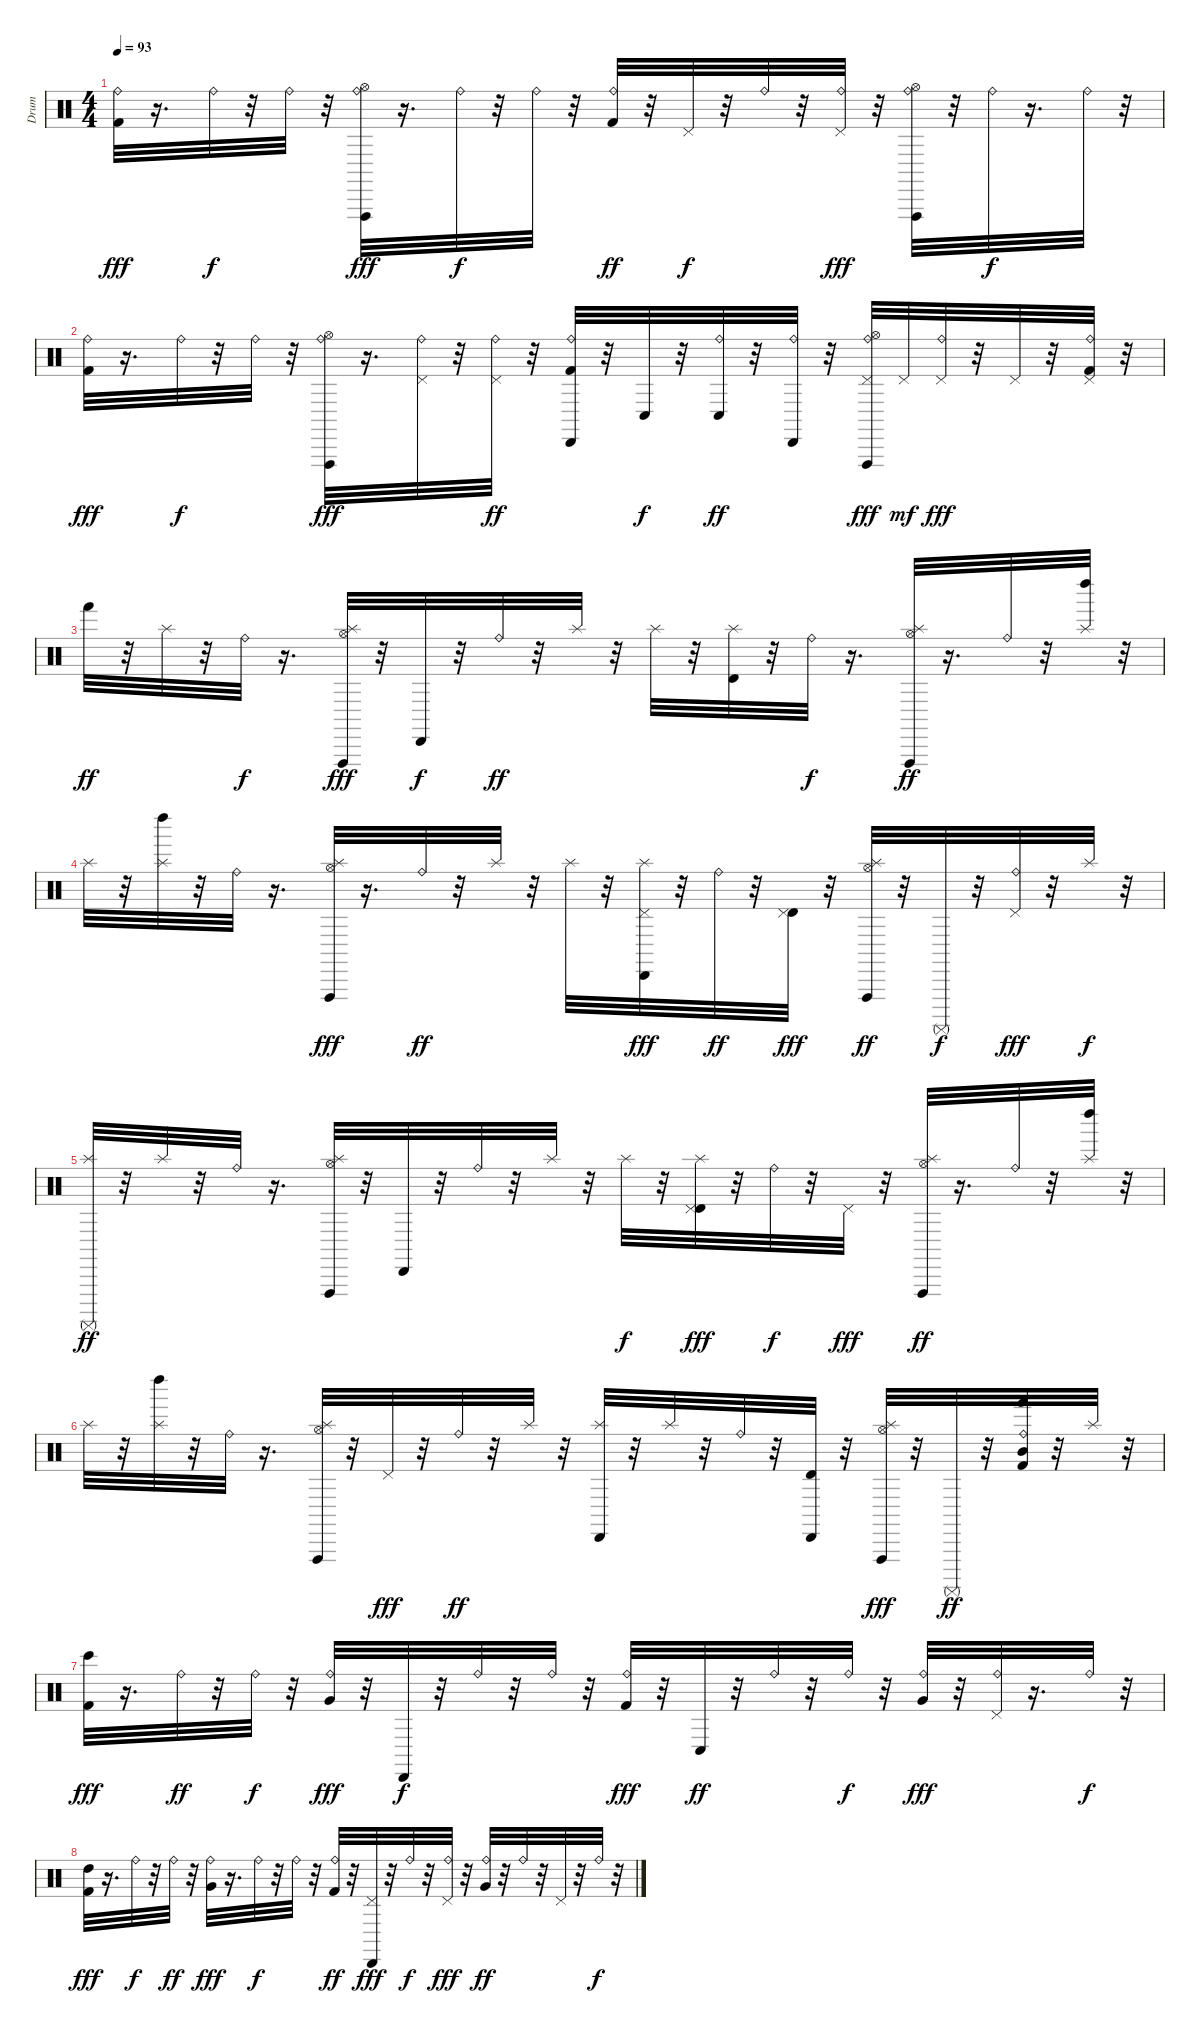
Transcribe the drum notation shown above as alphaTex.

\track ("Drum" "Drum") {instrument percussion}
\staff {score}
\articulation defaults
\ts (4 4)
\tempo 93
\clef neutral
\ks c
("Kick (hit) 2" "Ride (bell)").32{dy fff} r.16{d} "Ride (bell)".32{dy f} r.32 "Ride (bell)".32 r.32 ("Ride (bell)" "Vibraslap (hit)" "Hi-Hat (open)").32{dy fff} r.16{d} "Ride (bell)".32{dy f} r.32 "Ride (bell)".32 r.32 ("Kick (hit) 2" "Ride (bell)").32{dy ff} r.32 "Pedal Hi-Hat (hit)".32{dy f} r.32 "Ride (bell)".32 r.32 ("Ride (bell)" "Pedal Hi-Hat (hit)").32{dy fff} r.32 ("Ride (bell)" "Vibraslap (hit)" "Hi-Hat (open)").32 r.32 "Ride (bell)".32{dy f} r.16{d} "Ride (bell)".32 r.32 |
("Kick (hit) 2" "Ride (bell)").32{dy fff} r.16{d} "Ride (bell)".32{dy f} r.32 "Ride (bell)".32 r.32 ("Ride (bell)" "Vibraslap (hit)" "Hi-Hat (open)").32{dy fff} r.16{d} ("Ride (bell)" "Pedal Hi-Hat (hit)").32 r.32 ("Ride (bell)" "Pedal Hi-Hat (hit)").32{dy ff} r.32 ("Cabasa (hit)" "Kick (hit) 2" "Ride (bell)").32 r.32 "Conga low (hit)".32{dy f} r.32 ("Conga low (hit)" "Ride (bell)").32{dy ff} r.32 ("Cabasa (hit)" "Ride (bell)").32 r.32 ("Ride (bell)" "Pedal Hi-Hat (hit)" "Vibraslap (hit)" "Hi-Hat (open)").32{dy fff} "Pedal Hi-Hat (hit)".32{dy mf} ("Ride (bell)" "Pedal Hi-Hat (hit)").32{dy fff} r.32 "Pedal Hi-Hat (hit)".32 r.32 ("Kick (hit) 2" "Ride (bell)" "Pedal Hi-Hat (hit)").32 r.32 |
"Hand (hit)".32{dy ff} r.32 "Splash (hit)".32 r.32 "Ride (bell)".32{dy f} r.16{d} ("Splash (hit)" "Vibraslap (hit)" "Hi-Hat (open)").32{dy fff} r.32 "Cabasa (hit)".32{dy f} r.32 "Ride (bell)".32{dy ff} r.32 "Splash (hit)".32 r.32 "Splash (hit)".32 r.32 ("Timbale high (hit)" "Splash (hit)").32 r.32 "Ride (bell)".32{dy f} r.16{d} ("Splash (hit)" "Vibraslap (hit)" "Hi-Hat (open)").32{dy ff} r.16{d} "Ride (bell)".32 r.32 ("Left Maraca (hit)" "Splash (hit)").32 r.32 |
"Splash (hit)".32 r.32 ("Left Maraca (hit)" "Splash (hit)").32 r.32 "Ride (bell)".32 r.16{d} ("Splash (hit)" "Vibraslap (hit)" "Hi-Hat (open)").32{dy fff} r.16{d} "Ride (bell)".32{dy ff} r.32 "Splash (hit)".32 r.32 "Splash (hit)".32 r.32 ("Cabasa (hit)" "Splash (hit)" "Pedal Hi-Hat (hit)").32{dy fff} r.32 "Ride (bell)".32{dy ff} r.32 ("Timbale high (hit)" "Pedal Hi-Hat (hit)").32{dy fff} r.32 ("Splash (hit)" "Vibraslap (hit)" "Hi-Hat (open)").32{dy ff} r.32 "Surdo (mute)".32{dy f} r.32 ("Ride (bell)" "Pedal Hi-Hat (hit)").32{dy fff} r.32 "Splash (hit)".32{dy f} r.32 |
("Surdo (mute)" "Splash (hit)").32{dy ff} r.32 "Splash (hit)".32 r.32 "Ride (bell)".32 r.16{d} ("Splash (hit)" "Vibraslap (hit)" "Hi-Hat (open)").32 r.32 "Cabasa (hit)".32 r.32 "Ride (bell)".32 r.32 "Splash (hit)".32 r.32 "Splash (hit)".32{dy f} r.32 ("Timbale high (hit)" "Splash (hit)" "Pedal Hi-Hat (hit)").32{dy fff} r.32 "Ride (bell)".32{dy f} r.32 "Pedal Hi-Hat (hit)".32{dy fff} r.32 ("Splash (hit)" "Vibraslap (hit)" "Hi-Hat (open)").32{dy ff} r.16{d} "Ride (bell)".32 r.32 ("Left Maraca (hit)" "Splash (hit)").32 r.32 |
"Splash (hit)".32 r.32 ("Left Maraca (hit)" "Splash (hit)").32 r.32 "Ride (bell)".32 r.16{d} ("Splash (hit)" "Vibraslap (hit)" "Hi-Hat (open)").32 r.32 "Pedal Hi-Hat (hit)".32{dy fff} r.32 "Ride (bell)".32{dy ff} r.32 "Splash (hit)".32 r.32 ("Cabasa (hit)" "Splash (hit)").32 r.32 "Splash (hit)".32 r.32 "Ride (bell)".32 r.32 ("Cabasa (hit)" "Timbale high (hit)").32 r.32 ("Splash (hit)" "Vibraslap (hit)" "Hi-Hat (open)").32{dy fff} r.32 "Surdo (mute)".32{dy ff} r.32 ("Hand (hit)" "Kick (hit) 2" "Mid Tom (hit)" "Ride (bell)").32 r.32 "Splash (hit)".32 r.32 |
("Bongo High (hit)" "Kick (hit) 2").32{dy fff} r.16{d} "Ride (bell)".32{dy ff} r.32 "Ride (bell)".32{dy f} r.32 ("Ride (bell)" "Very Low Tom (hit)").32{dy fff} r.32 "Cabasa (hit)".32{dy f} r.32 "Ride (bell)".32 r.32 "Ride (bell)".32 r.32 ("Kick (hit) 2" "Ride (bell)").32{dy fff} r.32 "Conga low (hit)".32{dy ff} r.32 "Ride (bell)".32 r.32 "Ride (bell)".32{dy f} r.32 ("Ride (bell)" "Very Low Tom (hit)").32{dy fff} r.32 ("Ride (bell)" "Pedal Hi-Hat (hit)").32 r.16{d} "Ride (bell)".32{dy f} r.32 |
("High Tom (hit)" "Kick (hit) 2").32{dy fff} r.16{d} "Ride (bell)".32{dy f} r.32 "Ride (bell)".32{dy ff} r.32 ("Ride (bell)" "Very Low Tom (hit)").32{dy fff} r.16{d} "Ride (bell)".32{dy f} r.32 "Ride (bell)".32 r.32 ("Kick (hit) 2" "Ride (bell)").32{dy ff} r.32 ("Cabasa (hit)" "Pedal Hi-Hat (hit)").32{dy fff} r.32 "Ride (bell)".32{dy f} r.32 ("Ride (bell)" "Pedal Hi-Hat (hit)").32{dy fff} r.32 ("Ride (bell)" "Very Low Tom (hit)").32{dy ff} r.32 "Ride (bell)".32 r.32 "Pedal Hi-Hat (hit)".32 r.32 "Ride (bell)".32{dy f} r.32
